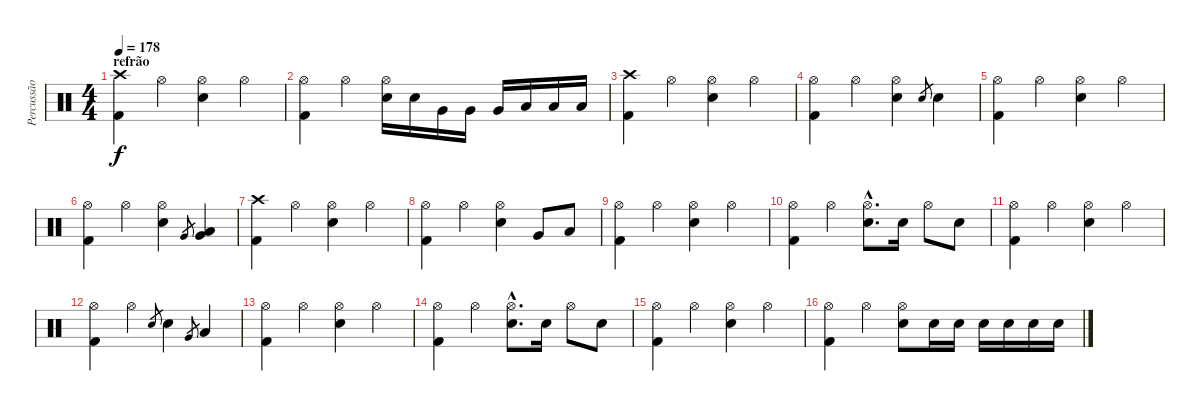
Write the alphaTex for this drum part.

\track ("Percussão" "Percussão") {instrument percussion}
\staff {score}
\articulation defaults
\ts (4 4)
\section ("" "refrão")
\tempo 178
\clef neutral
\ks c
("Crash high (hit)" "Kick (hit) 2").4{dy f} "Hi-Hat (open)".4 ("Hi-Hat (open)" "Snare (hit) 2").4 "Hi-Hat (open)".4 |
("Hi-Hat (open)" "Kick (hit) 2").4 "Hi-Hat (open)".4 ("Hi-Hat (open)" "Snare (hit) 2").16 "Snare (hit) 2".16 "Very Low Tom (hit)".16 "Very Low Tom (hit)".16 "Very Low Tom (hit)".16 "Low Tom (hit)".16 "Low Tom (hit)".16 "Low Tom (hit)".16 |
("Crash high (hit)" "Kick (hit) 2").4 "Hi-Hat (open)".4 ("Hi-Hat (open)" "Snare (hit) 2").4 "Hi-Hat (open)".4 |
("Hi-Hat (open)" "Kick (hit) 2").4 "Hi-Hat (open)".4 ("Hi-Hat (open)" "Snare (hit) 2").4 "Snare (hit) 2".8{gr} "Snare (hit) 2".4 |
("Hi-Hat (open)" "Kick (hit) 2").4 "Hi-Hat (open)".4 ("Hi-Hat (open)" "Snare (hit) 2").4 "Hi-Hat (open)".4 |
("Hi-Hat (open)" "Kick (hit) 2").4 "Hi-Hat (open)".4 ("Hi-Hat (open)" "Snare (hit) 2").4 "Very Low Tom (hit)".8{gr} ("Very Low Tom (hit)" "Low Tom (hit)").4 |
("Crash high (hit)" "Kick (hit) 2").4 "Hi-Hat (open)".4 ("Hi-Hat (open)" "Snare (hit) 2").4 "Hi-Hat (open)".4 |
("Hi-Hat (open)" "Kick (hit) 2").4 "Hi-Hat (open)".4 ("Hi-Hat (open)" "Snare (hit) 2").4 "Very Low Tom (hit)".8 "Low Tom (hit)".8 |
("Hi-Hat (open)" "Kick (hit) 2").4 "Hi-Hat (open)".4 ("Hi-Hat (open)" "Snare (hit) 2").4 "Hi-Hat (open)".4 |
("Hi-Hat (open)" "Kick (hit) 2").4 "Hi-Hat (open)".4 ("Hi-Hat (open)"{hac} "Snare (hit) 2"{hac}).8{d} "Snare (hit) 2".16 "Hi-Hat (open)".8 "Snare (hit) 2".8 |
("Hi-Hat (open)" "Kick (hit) 2").4 "Hi-Hat (open)".4 ("Hi-Hat (open)" "Snare (hit) 2").4 "Hi-Hat (open)".4 |
("Hi-Hat (open)" "Kick (hit) 2").4 "Hi-Hat (open)".4 "Snare (hit) 2".8{gr} "Snare (hit) 2".4 "Very Low Tom (hit)".8{gr} "Low Tom (hit)".4 |
("Hi-Hat (open)" "Kick (hit) 2").4 "Hi-Hat (open)".4 ("Hi-Hat (open)" "Snare (hit) 2").4 "Hi-Hat (open)".4 |
("Hi-Hat (open)" "Kick (hit) 2").4 "Hi-Hat (open)".4 ("Hi-Hat (open)"{hac} "Snare (hit) 2"{hac}).8{d} "Snare (hit) 2".16 "Hi-Hat (open)".8 "Snare (hit) 2".8 |
("Hi-Hat (open)" "Kick (hit) 2").4 "Hi-Hat (open)".4 ("Hi-Hat (open)" "Snare (hit) 2").4 "Hi-Hat (open)".4 |
("Hi-Hat (open)" "Kick (hit) 2").4 "Hi-Hat (open)".4 ("Hi-Hat (open)" "Snare (hit) 2").8 "Snare (hit) 2".16 "Snare (hit) 2".16 "Snare (hit) 2".16 "Snare (hit) 2".16 "Snare (hit) 2".16 "Snare (hit) 2".16
